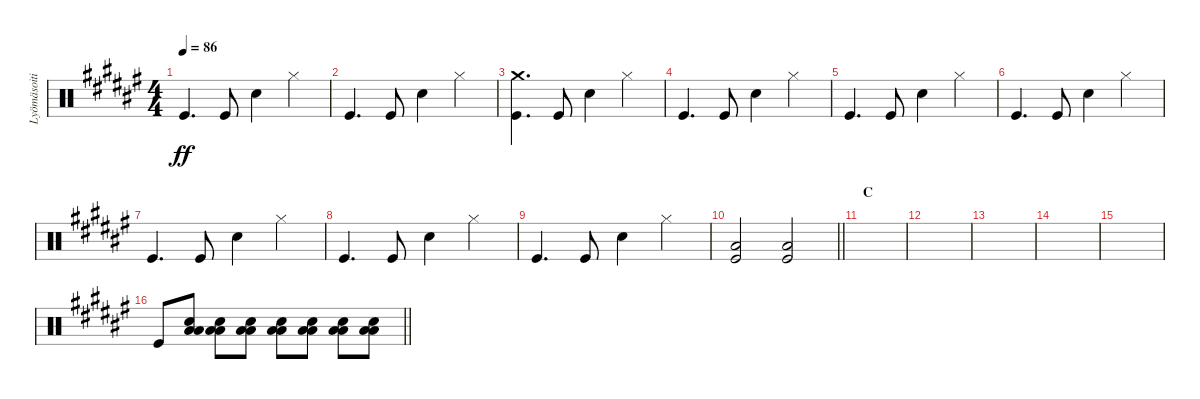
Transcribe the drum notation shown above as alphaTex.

\track ("Lyömäsoitin" "Lyömäsoiti") {instrument percussion}
\staff {score}
\articulation defaults
\ts (4 4)
\tempo 86
\clef neutral
\ks f# "Kick (hit)".4{d dy ff} "Kick (hit)".8 "Snare (hit) 2".4 "Hi-Hat (closed)".4
|
"Kick (hit)".4{d} "Kick (hit)".8 "Snare (hit) 2".4 "Hi-Hat (closed)".4 |
("Crash medium (hit)" "Kick (hit)").4{d} "Kick (hit)".8 "Snare (hit) 2".4 "Hi-Hat (closed)".4 |
"Kick (hit)".4{d} "Kick (hit)".8 "Snare (hit) 2".4 "Hi-Hat (closed)".4 |
"Kick (hit)".4{d} "Kick (hit)".8 "Snare (hit) 2".4 "Hi-Hat (closed)".4 |
"Kick (hit)".4{d} "Kick (hit)".8 "Snare (hit) 2".4 "Hi-Hat (closed)".4 |
"Kick (hit)".4{d} "Kick (hit)".8 "Snare (hit) 2".4 "Hi-Hat (closed)".4 |
"Kick (hit)".4{d} "Kick (hit)".8 "Snare (hit) 2".4 "Hi-Hat (closed)".4 |
"Kick (hit)".4{d} "Kick (hit)".8 "Snare (hit) 2".4 "Hi-Hat (closed)".4 |
\barLineRight lightlight
("Kick (hit)" "Low Floor Tom (hit)").2 ("Kick (hit)" "Low Floor Tom (hit)").2 |
\section ("" "C")
|
|
|
|
|
\barLineRight lightlight "Kick (hit)".8
("Snare (hit) 2" "Low Tom (hit)" "Low Floor Tom (hit)").8 ("Snare (hit) 2" "Low Tom (hit)" "Low Floor Tom (hit)").8 ("Snare (hit) 2" "Low Tom (hit)" "Low Floor Tom (hit)").8 ("Snare (hit) 2" "Low Tom (hit)" "Low Floor Tom (hit)").8 ("Snare (hit) 2" "Low Tom (hit)" "Low Floor Tom (hit)").8 ("Snare (hit) 2" "Low Tom (hit)" "Low Floor Tom (hit)").8 ("Snare (hit) 2" "Low Tom (hit)" "Low Floor Tom (hit)").8
